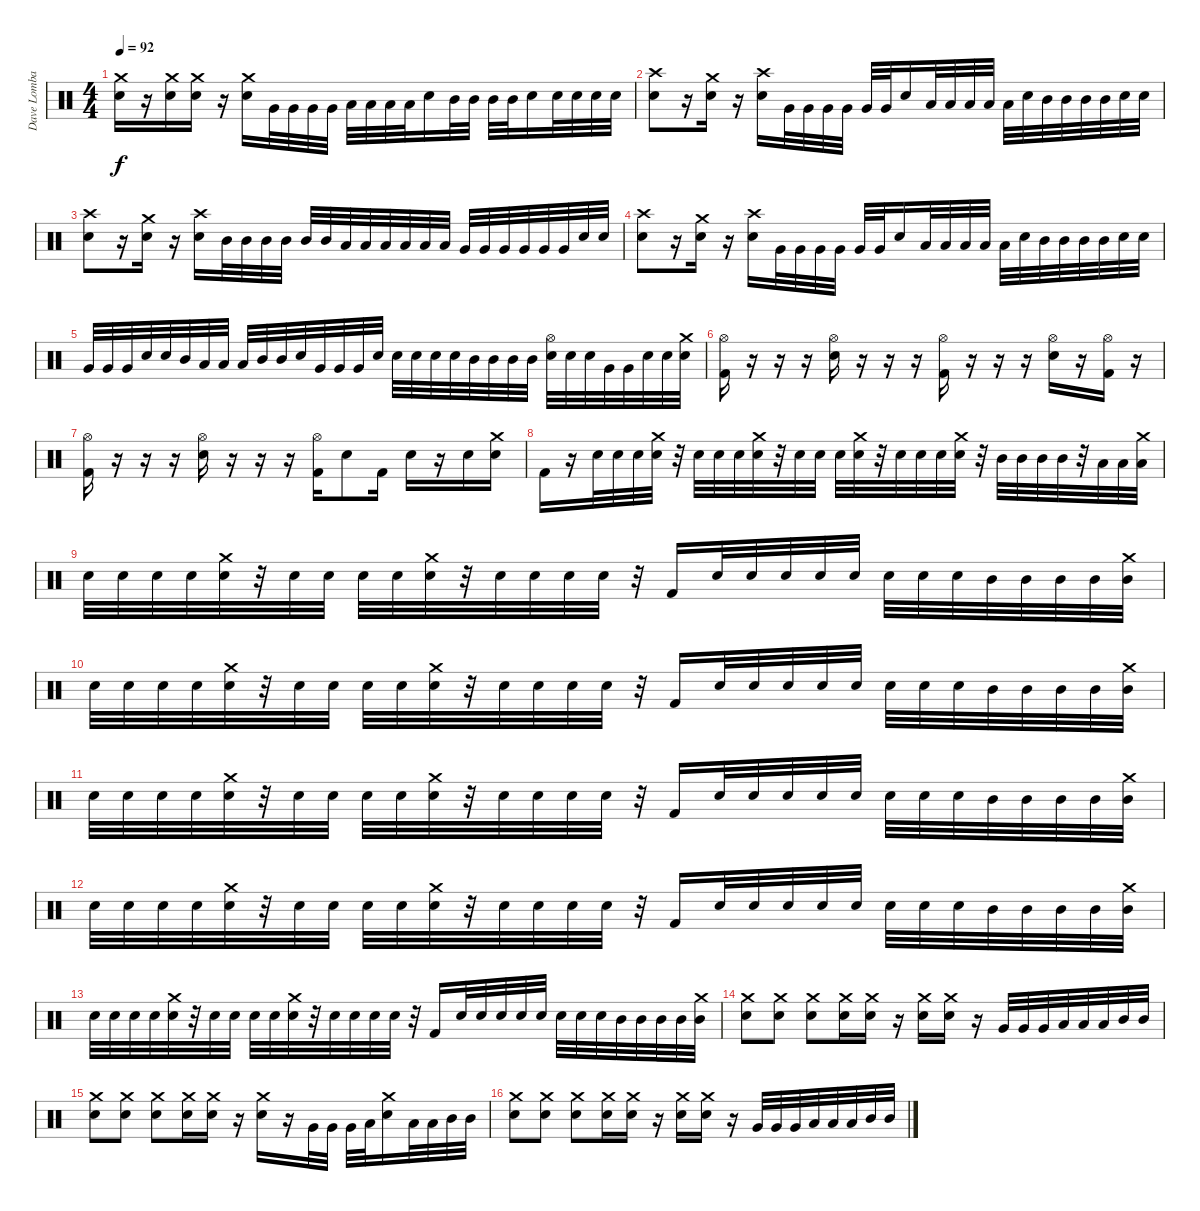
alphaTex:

\track ("Dave Lombardo" "Dave Lomba") {instrument percussion}
\staff {score}
\articulation defaults
\ts (4 4)
\tempo 92
\clef neutral
\ks c
("Electric Snare (hit)" "Crash medium (hit)").16{dy f} r.16 ("Electric Snare (hit)" "Crash medium (hit)").16 ("Electric Snare (hit)" "Crash medium (hit)").16 r.16 ("Electric Snare (hit)" "Crash medium (hit)").16 "Very Low Tom (hit)".32 "Very Low Tom (hit)".32 "Very Low Tom (hit)".32 "Very Low Tom (hit)".32 "Low Tom (hit)".32 "Low Tom (hit)".32 "Low Tom (hit)".32 "Low Tom (hit)".32 "Electric Snare (hit)".16 "Mid Tom (hit)".32 "Mid Tom (hit)".32 "Mid Tom (hit)".32 "Mid Tom (hit)".32 "Electric Snare (hit)".16 "Snare (hit) 2".32 "Snare (hit) 2".32 "Snare (hit) 2".32 "Snare (hit) 2".32 |
("Electric Snare (hit)" "Crash high (hit)").8 r.16 ("Electric Snare (hit)" "Crash medium (hit)").16 r.16 ("Electric Snare (hit)" "Crash high (hit)").16 "Very Low Tom (hit)".32 "Very Low Tom (hit)".32 "Very Low Tom (hit)".32 "Very Low Tom (hit)".32 "Very Low Tom (hit)".32 "Very Low Tom (hit)".32 "Snare (hit) 2".16 "Low Tom (hit)".32 "Low Tom (hit)".32 "Low Tom (hit)".32 "Low Tom (hit)".32 "Low Tom (hit)".32 "Snare (hit) 2".32 "Mid Tom (hit)".32 "Mid Tom (hit)".32 "Mid Tom (hit)".32 "Mid Tom (hit)".32 "Snare (hit) 2".32 "Snare (hit) 2".32 |
("Electric Snare (hit)" "Crash high (hit)").8 r.16 ("Electric Snare (hit)" "Crash medium (hit)").16 r.16 ("Electric Snare (hit)" "Crash high (hit)").16 "Mid Tom (hit)".32 "Mid Tom (hit)".32 "Mid Tom (hit)".32 "Mid Tom (hit)".32 "Mid Tom (hit)".32 "Mid Tom (hit)".32 "Low Tom (hit)".32 "Low Tom (hit)".32 "Low Tom (hit)".32 "Low Tom (hit)".32 "Low Tom (hit)".32 "Low Tom (hit)".32 "Very Low Tom (hit)".32 "Very Low Tom (hit)".32 "Very Low Tom (hit)".32 "Very Low Tom (hit)".32 "Very Low Tom (hit)".32 "Very Low Tom (hit)".32 "Snare (hit) 2".32 "Snare (hit) 2".32 |
("Electric Snare (hit)" "Crash high (hit)").8 r.16 ("Electric Snare (hit)" "Crash medium (hit)").16 r.16 ("Electric Snare (hit)" "Crash high (hit)").16 "Very Low Tom (hit)".32 "Very Low Tom (hit)".32 "Very Low Tom (hit)".32 "Very Low Tom (hit)".32 "Very Low Tom (hit)".32 "Very Low Tom (hit)".32 "Snare (hit) 2".16 "Low Tom (hit)".32 "Low Tom (hit)".32 "Low Tom (hit)".32 "Low Tom (hit)".32 "Low Tom (hit)".32 "Snare (hit) 2".32 "Mid Tom (hit)".32 "Mid Tom (hit)".32 "Mid Tom (hit)".32 "Mid Tom (hit)".32 "Snare (hit) 2".32 "Snare (hit) 2".32 |
"Very Low Tom (hit)".32 "Very Low Tom (hit)".32 "Very Low Tom (hit)".32 "Snare (hit) 2".32 "Electric Snare (hit)".32 "Mid Tom (hit)".32 "Low Tom (hit)".32 "Low Tom (hit)".32 "Low Tom (hit)".32 "Mid Tom (hit)".32 "Mid Tom (hit)".32 "Electric Snare (hit)".32 "Very Low Tom (hit)".32 "Very Low Tom (hit)".32 "Very Low Tom (hit)".32 "Snare (hit) 2".32 "Snare (hit) 2".32 "Snare (hit) 2".32 "Snare (hit) 2".32 "Snare (hit) 2".32 "Mid Tom (hit)".32 "Mid Tom (hit)".32 "Mid Tom (hit)".32 "Mid Tom (hit)".32 ("Snare (hit) 2" "Hi-Hat (open)").32 "Snare (hit) 2".32 "Snare (hit) 2".32 "Very Low Tom (hit)".32 "Very Low Tom (hit)".32 "Electric Snare (hit)".32 "Electric Snare (hit)".32 ("Electric Snare (hit)" "Crash medium (hit)").32 |
("Kick (hit) 2" "Hi-Hat (open)").16 r.16 r.16 r.16 ("Electric Snare (hit)" "Hi-Hat (open)").16 r.16 r.16 r.16 ("Kick (hit) 2" "Hi-Hat (open)").16 r.16 r.16 r.16 ("Electric Snare (hit)" "Hi-Hat (open)").16 r.16 ("Kick (hit) 2" "Hi-Hat (open)").16 r.16 |
("Kick (hit) 2" "Hi-Hat (open)").16 r.16 r.16 r.16 ("Electric Snare (hit)" "Hi-Hat (open)").16 r.16 r.16 r.16 ("Kick (hit) 2" "Hi-Hat (open)").16 "Electric Snare (hit)".8 "Kick (hit) 2".16 "Electric Snare (hit)".16 r.16 "Electric Snare (hit)".16 ("Electric Snare (hit)" "Crash medium (hit)").16 |
"Kick (hit) 2".16 r.16 "Electric Snare (hit)".32 "Electric Snare (hit)".32 "Electric Snare (hit)".32 ("Electric Snare (hit)" "Crash medium (hit)").32 r.32 "Electric Snare (hit)".32 "Electric Snare (hit)".32 "Electric Snare (hit)".32 ("Electric Snare (hit)" "Crash medium (hit)").32 r.32 "Electric Snare (hit)".32 "Electric Snare (hit)".32 "Electric Snare (hit)".32 ("Electric Snare (hit)" "Crash medium (hit)").32 r.32 "Electric Snare (hit)".32 "Electric Snare (hit)".32 "Electric Snare (hit)".32 ("Electric Snare (hit)" "Crash medium (hit)").32 r.32 "Mid Tom (hit)".32 "Mid Tom (hit)".32 "Mid Tom (hit)".32 "Mid Tom (hit)".32 r.32 "Low Tom (hit)".32 "Low Tom (hit)".32 ("Low Tom (hit)" "Crash medium (hit)").32 |
"Electric Snare (hit)".32 "Electric Snare (hit)".32 "Electric Snare (hit)".32 "Electric Snare (hit)".32 ("Snare (hit) 2" "Crash medium (hit)").32 r.32 "Electric Snare (hit)".32 "Electric Snare (hit)".32 "Electric Snare (hit)".32 "Electric Snare (hit)".32 ("Snare (hit) 2" "Crash medium (hit)").32 r.32 "Electric Snare (hit)".32 "Electric Snare (hit)".32 "Electric Snare (hit)".32 "Electric Snare (hit)".32 r.32 "Kick (hit) 2".16 "Electric Snare (hit)".32 "Electric Snare (hit)".32 "Electric Snare (hit)".32 "Electric Snare (hit)".32 "Snare (hit) 2".32 "Snare (hit) 2".32 "Snare (hit) 2".32 "Snare (hit) 2".32 "Mid Tom (hit)".32 "Mid Tom (hit)".32 "Mid Tom (hit)".32 "Mid Tom (hit)".32 ("Mid Tom (hit)" "Crash medium (hit)").32 |
"Electric Snare (hit)".32 "Electric Snare (hit)".32 "Electric Snare (hit)".32 "Electric Snare (hit)".32 ("Snare (hit) 2" "Crash medium (hit)").32 r.32 "Electric Snare (hit)".32 "Electric Snare (hit)".32 "Electric Snare (hit)".32 "Electric Snare (hit)".32 ("Snare (hit) 2" "Crash medium (hit)").32 r.32 "Electric Snare (hit)".32 "Electric Snare (hit)".32 "Electric Snare (hit)".32 "Electric Snare (hit)".32 r.32 "Kick (hit) 2".16 "Electric Snare (hit)".32 "Electric Snare (hit)".32 "Electric Snare (hit)".32 "Electric Snare (hit)".32 "Snare (hit) 2".32 "Snare (hit) 2".32 "Snare (hit) 2".32 "Snare (hit) 2".32 "Mid Tom (hit)".32 "Mid Tom (hit)".32 "Mid Tom (hit)".32 "Mid Tom (hit)".32 ("Mid Tom (hit)" "Crash medium (hit)").32 |
"Electric Snare (hit)".32 "Electric Snare (hit)".32 "Electric Snare (hit)".32 "Electric Snare (hit)".32 ("Snare (hit) 2" "Crash medium (hit)").32 r.32 "Electric Snare (hit)".32 "Electric Snare (hit)".32 "Electric Snare (hit)".32 "Electric Snare (hit)".32 ("Snare (hit) 2" "Crash medium (hit)").32 r.32 "Electric Snare (hit)".32 "Electric Snare (hit)".32 "Electric Snare (hit)".32 "Electric Snare (hit)".32 r.32 "Kick (hit) 2".16 "Electric Snare (hit)".32 "Electric Snare (hit)".32 "Electric Snare (hit)".32 "Electric Snare (hit)".32 "Snare (hit) 2".32 "Snare (hit) 2".32 "Snare (hit) 2".32 "Snare (hit) 2".32 "Mid Tom (hit)".32 "Mid Tom (hit)".32 "Mid Tom (hit)".32 "Mid Tom (hit)".32 ("Mid Tom (hit)" "Crash medium (hit)").32 |
"Electric Snare (hit)".32 "Electric Snare (hit)".32 "Electric Snare (hit)".32 "Electric Snare (hit)".32 ("Snare (hit) 2" "Crash medium (hit)").32 r.32 "Electric Snare (hit)".32 "Electric Snare (hit)".32 "Electric Snare (hit)".32 "Electric Snare (hit)".32 ("Snare (hit) 2" "Crash medium (hit)").32 r.32 "Electric Snare (hit)".32 "Electric Snare (hit)".32 "Electric Snare (hit)".32 "Electric Snare (hit)".32 r.32 "Kick (hit) 2".16 "Electric Snare (hit)".32 "Electric Snare (hit)".32 "Electric Snare (hit)".32 "Electric Snare (hit)".32 "Snare (hit) 2".32 "Snare (hit) 2".32 "Snare (hit) 2".32 "Snare (hit) 2".32 "Mid Tom (hit)".32 "Mid Tom (hit)".32 "Mid Tom (hit)".32 "Mid Tom (hit)".32 ("Mid Tom (hit)" "Crash medium (hit)").32 |
"Electric Snare (hit)".32 "Electric Snare (hit)".32 "Electric Snare (hit)".32 "Electric Snare (hit)".32 ("Snare (hit) 2" "Crash medium (hit)").32 r.32 "Electric Snare (hit)".32 "Electric Snare (hit)".32 "Electric Snare (hit)".32 "Electric Snare (hit)".32 ("Snare (hit) 2" "Crash medium (hit)").32 r.32 "Electric Snare (hit)".32 "Electric Snare (hit)".32 "Electric Snare (hit)".32 "Electric Snare (hit)".32 r.32 "Kick (hit) 2".16 "Electric Snare (hit)".32 "Electric Snare (hit)".32 "Electric Snare (hit)".32 "Electric Snare (hit)".32 "Snare (hit) 2".32 "Snare (hit) 2".32 "Snare (hit) 2".32 "Snare (hit) 2".32 "Mid Tom (hit)".32 "Mid Tom (hit)".32 "Mid Tom (hit)".32 "Mid Tom (hit)".32 ("Mid Tom (hit)" "Crash medium (hit)").32 |
("Crash medium (hit)" "Electric Snare (hit)").8 ("Crash medium (hit)" "Electric Snare (hit)").8 ("Crash medium (hit)" "Electric Snare (hit)").8 ("Crash medium (hit)" "Electric Snare (hit)").16 ("Crash medium (hit)" "Electric Snare (hit)").16 r.16 ("Crash medium (hit)" "Electric Snare (hit)").16 ("Crash medium (hit)" "Electric Snare (hit)").16 r.16 "Very Low Tom (hit)".32 "Very Low Tom (hit)".32 "Very Low Tom (hit)".32 "Low Tom (hit)".32 "Low Tom (hit)".32 "Low Tom (hit)".32 "Mid Tom (hit)".32 "Mid Tom (hit)".32 |
("Crash medium (hit)" "Electric Snare (hit)").8 ("Crash medium (hit)" "Electric Snare (hit)").8 ("Crash medium (hit)" "Electric Snare (hit)").8 ("Crash medium (hit)" "Electric Snare (hit)").16 ("Crash medium (hit)" "Electric Snare (hit)").16 r.16 ("Crash medium (hit)" "Electric Snare (hit)").16 r.16 "Very Low Tom (hit)".32 "Very Low Tom (hit)".32 "Very Low Tom (hit)".32 "Low Tom (hit)".32 ("Electric Snare (hit)" "Crash medium (hit)").16 "Low Tom (hit)".32 "Low Tom (hit)".32 "Mid Tom (hit)".32 "Mid Tom (hit)".32 |
("Crash medium (hit)" "Electric Snare (hit)").8 ("Crash medium (hit)" "Electric Snare (hit)").8 ("Crash medium (hit)" "Electric Snare (hit)").8 ("Crash medium (hit)" "Electric Snare (hit)").16 ("Crash medium (hit)" "Electric Snare (hit)").16 r.16 ("Crash medium (hit)" "Electric Snare (hit)").16 ("Crash medium (hit)" "Electric Snare (hit)").16 r.16 "Very Low Tom (hit)".32 "Very Low Tom (hit)".32 "Very Low Tom (hit)".32 "Low Tom (hit)".32 "Low Tom (hit)".32 "Low Tom (hit)".32 "Mid Tom (hit)".32 "Mid Tom (hit)".32
